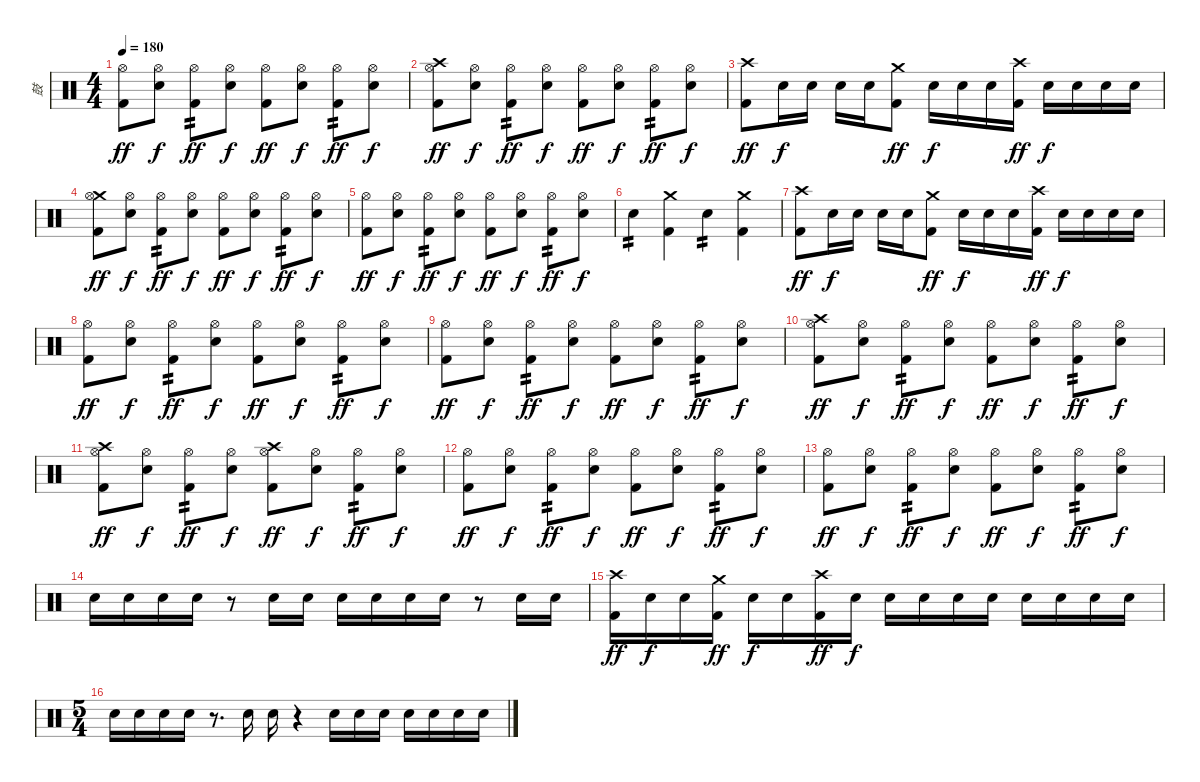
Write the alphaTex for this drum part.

\track ("鼓" "鼓") {instrument percussion}
\staff {score}
\articulation defaults
\ts (4 4)
\tempo 180
\clef neutral
\ks c
("Hi-Hat (open)" "Kick (hit) 2").8{dy ff} ("Hi-Hat (open)" "Snare (hit) 2").8{dy f} ("Hi-Hat (open)" "Kick (hit) 2").8{tp 2 dy ff} ("Hi-Hat (open)" "Snare (hit) 2").8{dy f} ("Hi-Hat (open)" "Kick (hit) 2").8{dy ff} ("Hi-Hat (open)" "Snare (hit) 2").8{dy f} ("Hi-Hat (open)" "Kick (hit) 2").8{tp 2 dy ff} ("Hi-Hat (open)" "Snare (hit) 2").8{dy f} |
("Crash high (hit)" "Hi-Hat (open)" "Kick (hit) 2").8{dy ff} ("Hi-Hat (open)" "Snare (hit) 2").8{dy f} ("Hi-Hat (open)" "Kick (hit) 2").8{tp 2 dy ff} ("Hi-Hat (open)" "Snare (hit) 2").8{dy f} ("Hi-Hat (open)" "Kick (hit) 2").8{dy ff} ("Hi-Hat (open)" "Snare (hit) 2").8{dy f} ("Hi-Hat (open)" "Kick (hit) 2").8{tp 2 dy ff} ("Hi-Hat (open)" "Snare (hit) 2").8{dy f} |
("Crash high (hit)" "Kick (hit) 2").8{dy ff} "Snare (hit) 2".16{dy f} "Snare (hit) 2".16 "Snare (hit) 2".16 "Snare (hit) 2".16 ("Crash medium (hit)" "Kick (hit) 2").8{dy ff} "Snare (hit) 2".16{dy f} "Snare (hit) 2".16 "Snare (hit) 2".16 ("Crash high (hit)" "Kick (hit) 2").16{dy ff} "Snare (hit) 2".16{dy f} "Snare (hit) 2".16 "Snare (hit) 2".16 "Snare (hit) 2".16 |
("Crash medium (hit)" "Hi-Hat (open)" "Kick (hit) 2").8{dy ff} ("Hi-Hat (open)" "Snare (hit) 2").8{dy f} ("Hi-Hat (open)" "Kick (hit) 2").8{tp 2 dy ff} ("Hi-Hat (open)" "Snare (hit) 2").8{dy f} ("Hi-Hat (open)" "Kick (hit) 2").8{dy ff} ("Hi-Hat (open)" "Snare (hit) 2").8{dy f} ("Hi-Hat (open)" "Kick (hit) 2").8{tp 2 dy ff} ("Hi-Hat (open)" "Snare (hit) 2").8{dy f} |
("Hi-Hat (open)" "Kick (hit) 2").8{dy ff} ("Hi-Hat (open)" "Snare (hit) 2").8{dy f} ("Hi-Hat (open)" "Kick (hit) 2").8{tp 2 dy ff} ("Hi-Hat (open)" "Snare (hit) 2").8{dy f} ("Hi-Hat (open)" "Kick (hit) 2").8{dy ff} ("Hi-Hat (open)" "Snare (hit) 2").8{dy f} ("Hi-Hat (open)" "Kick (hit) 2").8{tp 2 dy ff} ("Hi-Hat (open)" "Snare (hit) 2").8{dy f} |
"Snare (hit) 2".4{tp 2} ("Crash medium (hit)" "Kick (hit) 2").4 "Snare (hit) 2".4{tp 2} ("Crash medium (hit)" "Kick (hit) 2").4 |
("Crash high (hit)" "Kick (hit) 2").8{dy ff} "Snare (hit) 2".16{dy f} "Snare (hit) 2".16 "Snare (hit) 2".16 "Snare (hit) 2".16 ("Crash medium (hit)" "Kick (hit) 2").8{dy ff} "Snare (hit) 2".16{dy f} "Snare (hit) 2".16 "Snare (hit) 2".16 ("Crash high (hit)" "Kick (hit) 2").16{dy ff} "Snare (hit) 2".16{dy f} "Snare (hit) 2".16 "Snare (hit) 2".16 "Snare (hit) 2".16 |
("Hi-Hat (open)" "Kick (hit) 2").8{dy ff} ("Hi-Hat (open)" "Snare (hit) 2").8{dy f} ("Hi-Hat (open)" "Kick (hit) 2").8{tp 2 dy ff} ("Hi-Hat (open)" "Snare (hit) 2").8{dy f} ("Hi-Hat (open)" "Kick (hit) 2").8{dy ff} ("Hi-Hat (open)" "Snare (hit) 2").8{dy f} ("Hi-Hat (open)" "Kick (hit) 2").8{tp 2 dy ff} ("Hi-Hat (open)" "Snare (hit) 2").8{dy f} |
("Hi-Hat (open)" "Kick (hit) 2").8{dy ff} ("Hi-Hat (open)" "Snare (hit) 2").8{dy f} ("Hi-Hat (open)" "Kick (hit) 2").8{tp 2 dy ff} ("Hi-Hat (open)" "Snare (hit) 2").8{dy f} ("Hi-Hat (open)" "Kick (hit) 2").8{dy ff} ("Hi-Hat (open)" "Snare (hit) 2").8{dy f} ("Hi-Hat (open)" "Kick (hit) 2").8{tp 2 dy ff} ("Hi-Hat (open)" "Snare (hit) 2").8{dy f} |
("Crash high (hit)" "Hi-Hat (open)" "Kick (hit) 2").8{dy ff} ("Hi-Hat (open)" "Snare (hit) 2").8{dy f} ("Hi-Hat (open)" "Kick (hit) 2").8{tp 2 dy ff} ("Hi-Hat (open)" "Snare (hit) 2").8{dy f} ("Hi-Hat (open)" "Kick (hit) 2").8{dy ff} ("Hi-Hat (open)" "Snare (hit) 2").8{dy f} ("Hi-Hat (open)" "Kick (hit) 2").8{tp 2 dy ff} ("Hi-Hat (open)" "Snare (hit) 2").8{dy f} |
("Crash high (hit)" "Hi-Hat (open)" "Kick (hit) 2").8{dy ff} ("Hi-Hat (open)" "Snare (hit) 2").8{dy f} ("Hi-Hat (open)" "Kick (hit) 2").8{tp 2 dy ff} ("Hi-Hat (open)" "Snare (hit) 2").8{dy f} ("Crash high (hit)" "Hi-Hat (open)" "Kick (hit) 2").8{dy ff} ("Hi-Hat (open)" "Snare (hit) 2").8{dy f} ("Hi-Hat (open)" "Kick (hit) 2").8{tp 2 dy ff} ("Hi-Hat (open)" "Snare (hit) 2").8{dy f} |
("Hi-Hat (open)" "Kick (hit) 2").8{dy ff} ("Hi-Hat (open)" "Snare (hit) 2").8{dy f} ("Hi-Hat (open)" "Kick (hit) 2").8{tp 2 dy ff} ("Hi-Hat (open)" "Snare (hit) 2").8{dy f} ("Hi-Hat (open)" "Kick (hit) 2").8{dy ff} ("Hi-Hat (open)" "Snare (hit) 2").8{dy f} ("Hi-Hat (open)" "Kick (hit) 2").8{tp 2 dy ff} ("Hi-Hat (open)" "Snare (hit) 2").8{dy f} |
("Hi-Hat (open)" "Kick (hit) 2").8{dy ff} ("Hi-Hat (open)" "Snare (hit) 2").8{dy f} ("Hi-Hat (open)" "Kick (hit) 2").8{tp 2 dy ff} ("Hi-Hat (open)" "Snare (hit) 2").8{dy f} ("Hi-Hat (open)" "Kick (hit) 2").8{dy ff} ("Hi-Hat (open)" "Snare (hit) 2").8{dy f} ("Hi-Hat (open)" "Kick (hit) 2").8{tp 2 dy ff} ("Hi-Hat (open)" "Snare (hit) 2").8{dy f} |
"Snare (hit) 2".16 "Snare (hit) 2".16 "Snare (hit) 2".16 "Snare (hit) 2".16 r.8 "Snare (hit) 2".16 "Snare (hit) 2".16 "Snare (hit) 2".16 "Snare (hit) 2".16 "Snare (hit) 2".16 "Snare (hit) 2".16 r.8 "Snare (hit) 2".16 "Snare (hit) 2".16 |
("Crash high (hit)" "Kick (hit) 2").16{dy ff} "Snare (hit) 2".16{dy f} "Snare (hit) 2".16 ("Crash medium (hit)" "Kick (hit) 2").16{dy ff} "Snare (hit) 2".16{dy f} "Snare (hit) 2".16 ("Crash high (hit)" "Kick (hit) 2").16{dy ff} "Snare (hit) 2".16{dy f} "Snare (hit) 2".16 "Snare (hit) 2".16 "Snare (hit) 2".16 "Snare (hit) 2".16 "Snare (hit) 2".16 "Snare (hit) 2".16 "Snare (hit) 2".16 "Snare (hit) 2".16 |
\ts (5 4)
"Snare (hit) 2".16 "Snare (hit) 2".16 "Snare (hit) 2".16 "Snare (hit) 2".16 r.8{d} "Snare (hit) 2".16 "Snare (hit) 2".16 r.4 "Snare (hit) 2".16 "Snare (hit) 2".16 "Snare (hit) 2".16 "Snare (hit) 2".16 "Snare (hit) 2".16 "Snare (hit) 2".16 "Snare (hit) 2".16
